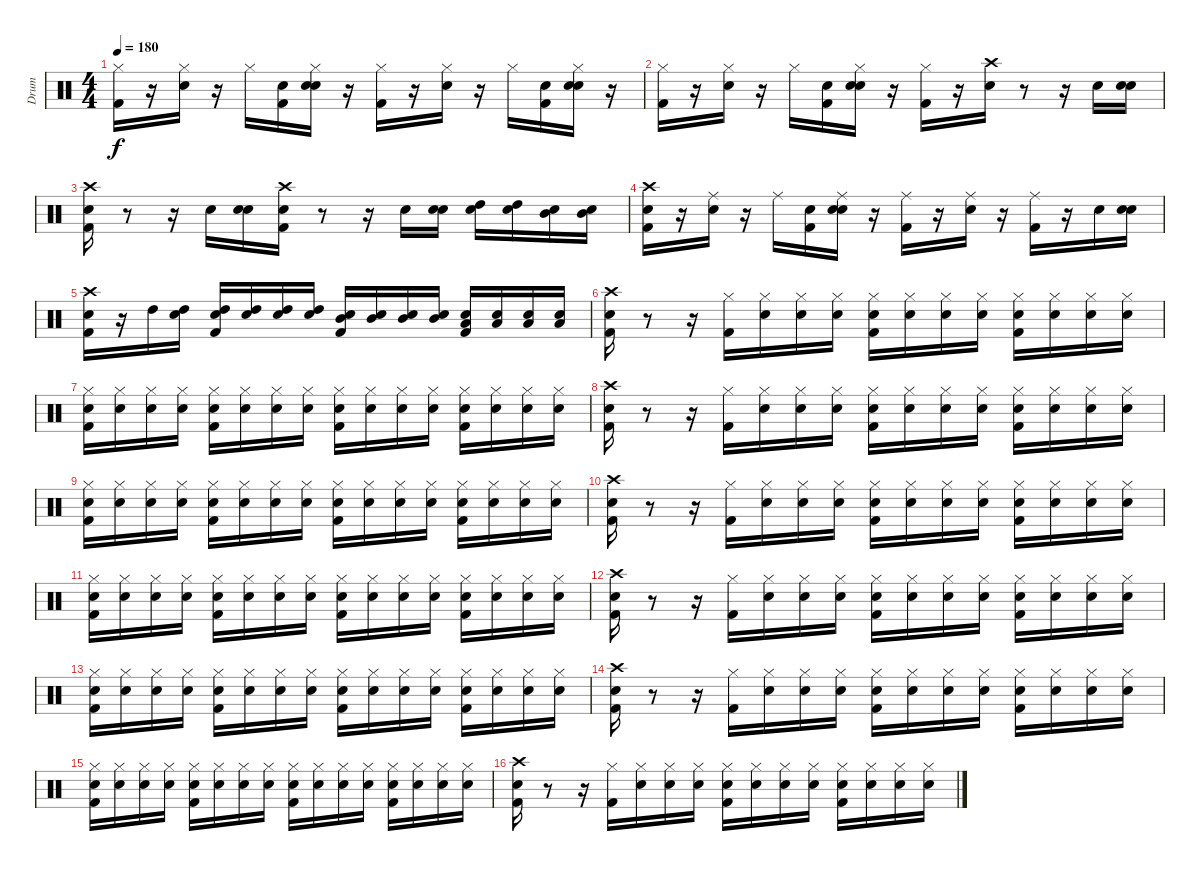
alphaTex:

\track ("Drum" "Drum") {instrument percussion}
\staff {score}
\articulation defaults
\ts (4 4)
\tempo 180
\clef neutral
\ks c
("Kick (hit) 2" "Hi-Hat (closed)").16{dy f} r.16 ("Snare (hit) 2" "Hi-Hat (closed)").16 r.16 "Hi-Hat (closed)".16 ("Snare (hit)" "Kick (hit) 2").16 ("Snare (hit)" "Snare (hit) 2" "Hi-Hat (closed)").16 r.16 ("Kick (hit) 2" "Hi-Hat (closed)").16 r.16 ("Snare (hit) 2" "Hi-Hat (closed)").16 r.16 "Hi-Hat (closed)".16 ("Snare (hit)" "Kick (hit) 2").16 ("Snare (hit)" "Snare (hit) 2" "Hi-Hat (closed)").16 r.16 |
("Kick (hit) 2" "Hi-Hat (closed)").16 r.16 ("Snare (hit) 2" "Hi-Hat (closed)").16 r.16 "Hi-Hat (closed)".16 ("Snare (hit)" "Kick (hit) 2").16 ("Snare (hit)" "Snare (hit) 2" "Hi-Hat (closed)").16 r.16 ("Kick (hit) 2" "Hi-Hat (closed)").16 r.16 ("Snare (hit) 2" "Crash high (hit)").16 r.8 r.16 "Snare (hit) 2".16 ("Snare (hit)" "Snare (hit) 2").16 |
("Snare (hit)" "Crash high (hit)" "Kick (hit) 2").16 r.8 r.16 "Snare (hit) 2".16 ("Snare (hit)" "Snare (hit) 2").16 ("Snare (hit)" "Kick (hit) 2" "Crash high (hit)").16 r.8 r.16 "Snare (hit) 2".16 ("Snare (hit)" "Snare (hit) 2").16 ("Snare (hit)" "High Tom (hit)").16 ("Snare (hit)" "High Tom (hit)").16 ("Snare (hit)" "Mid Tom (hit)").16 ("Snare (hit)" "Mid Tom (hit)").16 |
("Snare (hit)" "Crash high (hit)" "Kick (hit) 2").16 r.16 ("Snare (hit) 2" "Ride (middle)").16 r.16 "Ride (middle)".16 ("Snare (hit)" "Kick (hit) 2").16 ("Snare (hit)" "Snare (hit) 2" "Ride (middle)").16 r.16 ("Kick (hit) 2" "Ride (middle)").16 r.16 ("Ride (middle)" "Snare (hit) 2").16 r.16 ("Kick (hit) 2" "Ride (middle)").16 r.16 "Snare (hit) 2".16 ("Snare (hit)" "Snare (hit) 2").16 |
("Snare (hit)" "Crash high (hit)" "Kick (hit) 2").16 r.16 "High Tom (hit)".16 ("Snare (hit)" "High Tom (hit)").16 ("Snare (hit)" "High Tom (hit)" "Kick (hit) 2").16 ("Snare (hit)" "High Tom (hit)").16 ("Snare (hit)" "High Tom (hit)").16 ("Snare (hit)" "High Tom (hit)").16 ("Snare (hit)" "Mid Tom (hit)" "Kick (hit) 2").16 ("Snare (hit)" "Mid Tom (hit)").16 ("Snare (hit)" "Mid Tom (hit)").16 ("Snare (hit)" "Mid Tom (hit)").16 ("Snare (hit)" "Low Tom (hit)" "Kick (hit) 2").16 ("Snare (hit)" "Low Tom (hit)").16 ("Snare (hit)" "Low Tom (hit)").16 ("Snare (hit)" "Low Tom (hit)").16 |
("Snare (hit)" "Crash high (hit)" "Kick (hit) 2").16 r.8 r.16 ("Hi-Hat (closed)" "Kick (hit) 2").16 ("Snare (hit)" "Hi-Hat (closed)").16 ("Snare (hit)" "Hi-Hat (closed)").16 ("Snare (hit)" "Hi-Hat (closed)").16 ("Snare (hit)" "Hi-Hat (closed)" "Kick (hit) 2").16 ("Snare (hit)" "Hi-Hat (closed)").16 ("Snare (hit)" "Hi-Hat (closed)").16 ("Snare (hit)" "Hi-Hat (closed)").16 ("Snare (hit)" "Hi-Hat (closed)" "Kick (hit) 2").16 ("Snare (hit)" "Hi-Hat (closed)").16 ("Snare (hit)" "Hi-Hat (closed)").16 ("Snare (hit)" "Hi-Hat (closed)").16 |
("Snare (hit)" "Kick (hit) 2" "Hi-Hat (closed)").16 ("Snare (hit)" "Hi-Hat (closed)").16 ("Snare (hit)" "Hi-Hat (closed)").16 ("Snare (hit)" "Hi-Hat (closed)").16 ("Snare (hit)" "Kick (hit) 2" "Hi-Hat (closed)").16 ("Snare (hit)" "Hi-Hat (closed)").16 ("Snare (hit)" "Hi-Hat (closed)").16 ("Snare (hit)" "Hi-Hat (closed)").16 ("Snare (hit)" "Kick (hit) 2" "Hi-Hat (closed)").16 ("Snare (hit)" "Hi-Hat (closed)").16 ("Snare (hit)" "Hi-Hat (closed)").16 ("Snare (hit)" "Hi-Hat (closed)").16 ("Snare (hit)" "Kick (hit) 2" "Hi-Hat (closed)").16 ("Snare (hit)" "Hi-Hat (closed)").16 ("Snare (hit)" "Hi-Hat (closed)").16 ("Snare (hit)" "Hi-Hat (closed)").16 |
("Snare (hit)" "Crash high (hit)" "Kick (hit) 2").16 r.8 r.16 ("Hi-Hat (closed)" "Kick (hit) 2").16 ("Snare (hit)" "Hi-Hat (closed)").16 ("Snare (hit)" "Hi-Hat (closed)").16 ("Snare (hit)" "Hi-Hat (closed)").16 ("Snare (hit)" "Hi-Hat (closed)" "Kick (hit) 2").16 ("Snare (hit)" "Hi-Hat (closed)").16 ("Snare (hit)" "Hi-Hat (closed)").16 ("Snare (hit)" "Hi-Hat (closed)").16 ("Snare (hit)" "Hi-Hat (closed)" "Kick (hit) 2").16 ("Snare (hit)" "Hi-Hat (closed)").16 ("Snare (hit)" "Hi-Hat (closed)").16 ("Snare (hit)" "Hi-Hat (closed)").16 |
("Snare (hit)" "Kick (hit) 2" "Hi-Hat (closed)").16 ("Snare (hit)" "Hi-Hat (closed)").16 ("Snare (hit)" "Hi-Hat (closed)").16 ("Snare (hit)" "Hi-Hat (closed)").16 ("Snare (hit)" "Kick (hit) 2" "Hi-Hat (closed)").16 ("Snare (hit)" "Hi-Hat (closed)").16 ("Snare (hit)" "Hi-Hat (closed)").16 ("Snare (hit)" "Hi-Hat (closed)").16 ("Snare (hit)" "Kick (hit) 2" "Hi-Hat (closed)").16 ("Snare (hit)" "Hi-Hat (closed)").16 ("Snare (hit)" "Hi-Hat (closed)").16 ("Snare (hit)" "Hi-Hat (closed)").16 ("Snare (hit)" "Kick (hit) 2" "Hi-Hat (closed)").16 ("Snare (hit)" "Hi-Hat (closed)").16 ("Snare (hit)" "Hi-Hat (closed)").16 ("Snare (hit)" "Hi-Hat (closed)").16 |
("Snare (hit)" "Crash high (hit)" "Kick (hit) 2").16 r.8 r.16 ("Hi-Hat (closed)" "Kick (hit) 2").16 ("Snare (hit)" "Hi-Hat (closed)").16 ("Snare (hit)" "Hi-Hat (closed)").16 ("Snare (hit)" "Hi-Hat (closed)").16 ("Snare (hit)" "Hi-Hat (closed)" "Kick (hit) 2").16 ("Snare (hit)" "Hi-Hat (closed)").16 ("Snare (hit)" "Hi-Hat (closed)").16 ("Snare (hit)" "Hi-Hat (closed)").16 ("Snare (hit)" "Hi-Hat (closed)" "Kick (hit) 2").16 ("Snare (hit)" "Hi-Hat (closed)").16 ("Snare (hit)" "Hi-Hat (closed)").16 ("Snare (hit)" "Hi-Hat (closed)").16 |
("Snare (hit)" "Kick (hit) 2" "Hi-Hat (closed)").16 ("Snare (hit)" "Hi-Hat (closed)").16 ("Snare (hit)" "Hi-Hat (closed)").16 ("Snare (hit)" "Hi-Hat (closed)").16 ("Snare (hit)" "Kick (hit) 2" "Hi-Hat (closed)").16 ("Snare (hit)" "Hi-Hat (closed)").16 ("Snare (hit)" "Hi-Hat (closed)").16 ("Snare (hit)" "Hi-Hat (closed)").16 ("Snare (hit)" "Kick (hit) 2" "Hi-Hat (closed)").16 ("Snare (hit)" "Hi-Hat (closed)").16 ("Snare (hit)" "Hi-Hat (closed)").16 ("Snare (hit)" "Hi-Hat (closed)").16 ("Snare (hit)" "Kick (hit) 2" "Hi-Hat (closed)").16 ("Snare (hit)" "Hi-Hat (closed)").16 ("Snare (hit)" "Hi-Hat (closed)").16 ("Snare (hit)" "Hi-Hat (closed)").16 |
("Snare (hit)" "Crash high (hit)" "Kick (hit) 2").16 r.8 r.16 ("Hi-Hat (closed)" "Kick (hit) 2").16 ("Snare (hit)" "Hi-Hat (closed)").16 ("Snare (hit)" "Hi-Hat (closed)").16 ("Snare (hit)" "Hi-Hat (closed)").16 ("Snare (hit)" "Hi-Hat (closed)" "Kick (hit) 2").16 ("Snare (hit)" "Hi-Hat (closed)").16 ("Snare (hit)" "Hi-Hat (closed)").16 ("Snare (hit)" "Hi-Hat (closed)").16 ("Snare (hit)" "Hi-Hat (closed)" "Kick (hit) 2").16 ("Snare (hit)" "Hi-Hat (closed)").16 ("Snare (hit)" "Hi-Hat (closed)").16 ("Snare (hit)" "Hi-Hat (closed)").16 |
("Snare (hit)" "Kick (hit) 2" "Hi-Hat (closed)").16 ("Snare (hit)" "Hi-Hat (closed)").16 ("Snare (hit)" "Hi-Hat (closed)").16 ("Snare (hit)" "Hi-Hat (closed)").16 ("Snare (hit)" "Kick (hit) 2" "Hi-Hat (closed)").16 ("Snare (hit)" "Hi-Hat (closed)").16 ("Snare (hit)" "Hi-Hat (closed)").16 ("Snare (hit)" "Hi-Hat (closed)").16 ("Snare (hit)" "Kick (hit) 2" "Hi-Hat (closed)").16 ("Snare (hit)" "Hi-Hat (closed)").16 ("Snare (hit)" "Hi-Hat (closed)").16 ("Snare (hit)" "Hi-Hat (closed)").16 ("Snare (hit)" "Kick (hit) 2" "Hi-Hat (closed)").16 ("Snare (hit)" "Hi-Hat (closed)").16 ("Snare (hit)" "Hi-Hat (closed)").16 ("Snare (hit)" "Hi-Hat (closed)").16 |
("Snare (hit)" "Crash high (hit)" "Kick (hit) 2").16 r.8 r.16 ("Hi-Hat (closed)" "Kick (hit) 2").16 ("Snare (hit)" "Hi-Hat (closed)").16 ("Snare (hit)" "Hi-Hat (closed)").16 ("Snare (hit)" "Hi-Hat (closed)").16 ("Snare (hit)" "Hi-Hat (closed)" "Kick (hit) 2").16 ("Snare (hit)" "Hi-Hat (closed)").16 ("Snare (hit)" "Hi-Hat (closed)").16 ("Snare (hit)" "Hi-Hat (closed)").16 ("Snare (hit)" "Hi-Hat (closed)" "Kick (hit) 2").16 ("Snare (hit)" "Hi-Hat (closed)").16 ("Snare (hit)" "Hi-Hat (closed)").16 ("Snare (hit)" "Hi-Hat (closed)").16 |
("Snare (hit)" "Kick (hit) 2" "Hi-Hat (closed)").16 ("Snare (hit)" "Hi-Hat (closed)").16 ("Snare (hit)" "Hi-Hat (closed)").16 ("Snare (hit)" "Hi-Hat (closed)").16 ("Snare (hit)" "Kick (hit) 2" "Hi-Hat (closed)").16 ("Snare (hit)" "Hi-Hat (closed)").16 ("Snare (hit)" "Hi-Hat (closed)").16 ("Snare (hit)" "Hi-Hat (closed)").16 ("Snare (hit)" "Kick (hit) 2" "Hi-Hat (closed)").16 ("Snare (hit)" "Hi-Hat (closed)").16 ("Snare (hit)" "Hi-Hat (closed)").16 ("Snare (hit)" "Hi-Hat (closed)").16 ("Snare (hit)" "Kick (hit) 2" "Hi-Hat (closed)").16 ("Snare (hit)" "Hi-Hat (closed)").16 ("Snare (hit)" "Hi-Hat (closed)").16 ("Snare (hit)" "Hi-Hat (closed)").16 |
("Snare (hit)" "Crash high (hit)" "Kick (hit) 2").16 r.8 r.16 ("Hi-Hat (closed)" "Kick (hit) 2").16 ("Snare (hit)" "Hi-Hat (closed)").16 ("Snare (hit)" "Hi-Hat (closed)").16 ("Snare (hit)" "Hi-Hat (closed)").16 ("Snare (hit)" "Hi-Hat (closed)" "Kick (hit) 2").16 ("Snare (hit)" "Hi-Hat (closed)").16 ("Snare (hit)" "Hi-Hat (closed)").16 ("Snare (hit)" "Hi-Hat (closed)").16 ("Snare (hit)" "Hi-Hat (closed)" "Kick (hit) 2").16 ("Snare (hit)" "Hi-Hat (closed)").16 ("Snare (hit)" "Hi-Hat (closed)").16 ("Snare (hit)" "Hi-Hat (closed)").16
